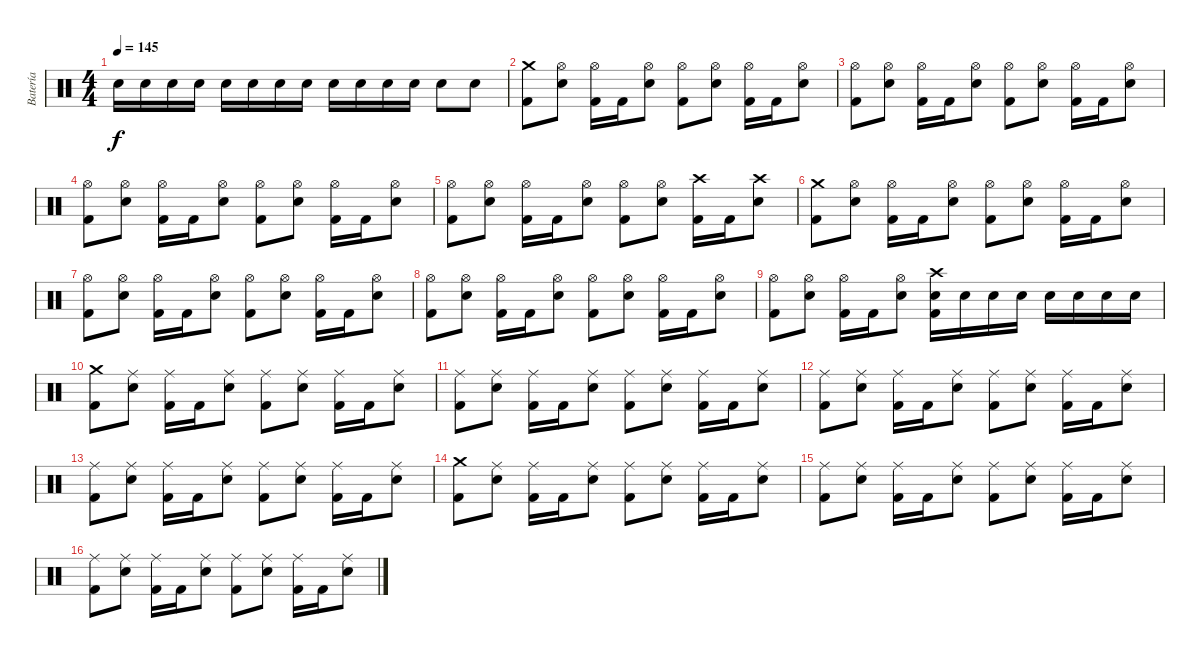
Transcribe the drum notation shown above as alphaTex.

\track ("Batería" "Batería") {instrument percussion}
\staff {score}
\articulation defaults
\ts (4 4)
\tempo 145
\clef neutral
\ks c "Electric Snare (hit)".16{dy f} "Electric Snare (hit)".16 "Electric Snare (hit)".16 "Electric Snare (hit)".16 "Electric Snare (hit)".16 "Electric Snare (hit)".16 "Electric Snare (hit)".16 "Electric Snare (hit)".16 "Electric Snare (hit)".16 "Electric Snare (hit)".16 "Electric Snare (hit)".16 "Electric Snare (hit)".16 "Electric Snare (hit)".8 "Electric Snare (hit)".8
|
("Kick (hit) 2" "Crash medium (hit)").8 ("Electric Snare (hit)" "Hi-Hat (open)").8 ("Kick (hit) 2" "Hi-Hat (open)").16 "Kick (hit) 2".16 ("Electric Snare (hit)" "Hi-Hat (open)").8 ("Kick (hit) 2" "Hi-Hat (open)").8 ("Electric Snare (hit)" "Hi-Hat (open)").8 ("Kick (hit) 2" "Hi-Hat (open)").16 "Kick (hit) 2".16 ("Electric Snare (hit)" "Hi-Hat (open)").8 |
("Kick (hit) 2" "Hi-Hat (open)").8 ("Electric Snare (hit)" "Hi-Hat (open)").8 ("Kick (hit) 2" "Hi-Hat (open)").16 "Kick (hit) 2".16 ("Electric Snare (hit)" "Hi-Hat (open)").8 ("Kick (hit) 2" "Hi-Hat (open)").8 ("Electric Snare (hit)" "Hi-Hat (open)").8 ("Kick (hit) 2" "Hi-Hat (open)").16 "Kick (hit) 2".16 ("Electric Snare (hit)" "Hi-Hat (open)").8 |
("Kick (hit) 2" "Hi-Hat (open)").8 ("Electric Snare (hit)" "Hi-Hat (open)").8 ("Kick (hit) 2" "Hi-Hat (open)").16 "Kick (hit) 2".16 ("Electric Snare (hit)" "Hi-Hat (open)").8 ("Kick (hit) 2" "Hi-Hat (open)").8 ("Electric Snare (hit)" "Hi-Hat (open)").8 ("Kick (hit) 2" "Hi-Hat (open)").16 "Kick (hit) 2".16 ("Electric Snare (hit)" "Hi-Hat (open)").8 |
("Kick (hit) 2" "Hi-Hat (open)").8 ("Electric Snare (hit)" "Hi-Hat (open)").8 ("Kick (hit) 2" "Hi-Hat (open)").16 "Kick (hit) 2".16 ("Electric Snare (hit)" "Hi-Hat (open)").8 ("Kick (hit) 2" "Hi-Hat (open)").8 ("Electric Snare (hit)" "Hi-Hat (open)").8 ("Kick (hit) 2" "Crash high (hit)").16 "Kick (hit) 2".16 ("Electric Snare (hit)" "Crash high (hit)").8 |
("Kick (hit) 2" "Crash medium (hit)").8 ("Electric Snare (hit)" "Hi-Hat (open)").8 ("Kick (hit) 2" "Hi-Hat (open)").16 "Kick (hit) 2".16 ("Electric Snare (hit)" "Hi-Hat (open)").8 ("Kick (hit) 2" "Hi-Hat (open)").8 ("Electric Snare (hit)" "Hi-Hat (open)").8 ("Kick (hit) 2" "Hi-Hat (open)").16 "Kick (hit) 2".16 ("Electric Snare (hit)" "Hi-Hat (open)").8 |
("Kick (hit) 2" "Hi-Hat (open)").8 ("Electric Snare (hit)" "Hi-Hat (open)").8 ("Kick (hit) 2" "Hi-Hat (open)").16 "Kick (hit) 2".16 ("Electric Snare (hit)" "Hi-Hat (open)").8 ("Kick (hit) 2" "Hi-Hat (open)").8 ("Electric Snare (hit)" "Hi-Hat (open)").8 ("Kick (hit) 2" "Hi-Hat (open)").16 "Kick (hit) 2".16 ("Electric Snare (hit)" "Hi-Hat (open)").8 |
("Kick (hit) 2" "Hi-Hat (open)").8 ("Electric Snare (hit)" "Hi-Hat (open)").8 ("Kick (hit) 2" "Hi-Hat (open)").16 "Kick (hit) 2".16 ("Electric Snare (hit)" "Hi-Hat (open)").8 ("Kick (hit) 2" "Hi-Hat (open)").8 ("Electric Snare (hit)" "Hi-Hat (open)").8 ("Kick (hit) 2" "Hi-Hat (open)").16 "Kick (hit) 2".16 ("Electric Snare (hit)" "Hi-Hat (open)").8 |
("Kick (hit) 2" "Hi-Hat (open)").8 ("Electric Snare (hit)" "Hi-Hat (open)").8 ("Kick (hit) 2" "Hi-Hat (open)").16 "Kick (hit) 2".16 ("Electric Snare (hit)" "Hi-Hat (open)").8 ("Kick (hit) 2" "Electric Snare (hit)" "Crash high (hit)").16 "Electric Snare (hit)".16 "Electric Snare (hit)".16 "Electric Snare (hit)".16 "Electric Snare (hit)".16 "Electric Snare (hit)".16 "Electric Snare (hit)".16 "Electric Snare (hit)".16 |
("Kick (hit) 2" "Crash medium (hit)").8 ("Electric Snare (hit)" "Ride (middle)").8 ("Kick (hit) 2" "Ride (middle)").16 "Kick (hit) 2".16 ("Electric Snare (hit)" "Ride (middle)").8 ("Kick (hit) 2" "Ride (middle)").8 ("Electric Snare (hit)" "Ride (middle)").8 ("Kick (hit) 2" "Ride (middle)").16 "Kick (hit) 2".16 ("Electric Snare (hit)" "Ride (middle)").8 |
("Kick (hit) 2" "Ride (middle)").8 ("Electric Snare (hit)" "Ride (middle)").8 ("Kick (hit) 2" "Ride (middle)").16 "Kick (hit) 2".16 ("Electric Snare (hit)" "Ride (middle)").8 ("Kick (hit) 2" "Ride (middle)").8 ("Electric Snare (hit)" "Ride (middle)").8 ("Kick (hit) 2" "Ride (middle)").16 "Kick (hit) 2".16 ("Electric Snare (hit)" "Ride (middle)").8 |
("Kick (hit) 2" "Ride (middle)").8 ("Electric Snare (hit)" "Ride (middle)").8 ("Kick (hit) 2" "Ride (middle)").16 "Kick (hit) 2".16 ("Electric Snare (hit)" "Ride (middle)").8 ("Kick (hit) 2" "Ride (middle)").8 ("Electric Snare (hit)" "Ride (middle)").8 ("Kick (hit) 2" "Ride (middle)").16 "Kick (hit) 2".16 ("Electric Snare (hit)" "Ride (middle)").8 |
("Kick (hit) 2" "Ride (middle)").8 ("Electric Snare (hit)" "Ride (middle)").8 ("Kick (hit) 2" "Ride (middle)").16 "Kick (hit) 2".16 ("Electric Snare (hit)" "Ride (middle)").8 ("Kick (hit) 2" "Ride (middle)").8 ("Electric Snare (hit)" "Ride (middle)").8 ("Kick (hit) 2" "Ride (middle)").16 "Kick (hit) 2".16 ("Electric Snare (hit)" "Ride (middle)").8 |
("Kick (hit) 2" "Crash medium (hit)").8 ("Electric Snare (hit)" "Ride (middle)").8 ("Kick (hit) 2" "Ride (middle)").16 "Kick (hit) 2".16 ("Electric Snare (hit)" "Ride (middle)").8 ("Kick (hit) 2" "Ride (middle)").8 ("Electric Snare (hit)" "Ride (middle)").8 ("Kick (hit) 2" "Ride (middle)").16 "Kick (hit) 2".16 ("Electric Snare (hit)" "Ride (middle)").8 |
("Kick (hit) 2" "Ride (middle)").8 ("Electric Snare (hit)" "Ride (middle)").8 ("Kick (hit) 2" "Ride (middle)").16 "Kick (hit) 2".16 ("Electric Snare (hit)" "Ride (middle)").8 ("Kick (hit) 2" "Ride (middle)").8 ("Electric Snare (hit)" "Ride (middle)").8 ("Kick (hit) 2" "Ride (middle)").16 "Kick (hit) 2".16 ("Electric Snare (hit)" "Ride (middle)").8 |
("Kick (hit) 2" "Ride (middle)").8 ("Electric Snare (hit)" "Ride (middle)").8 ("Kick (hit) 2" "Ride (middle)").16 "Kick (hit) 2".16 ("Electric Snare (hit)" "Ride (middle)").8 ("Kick (hit) 2" "Ride (middle)").8 ("Electric Snare (hit)" "Ride (middle)").8 ("Kick (hit) 2" "Ride (middle)").16 "Kick (hit) 2".16 ("Electric Snare (hit)" "Ride (middle)").8
